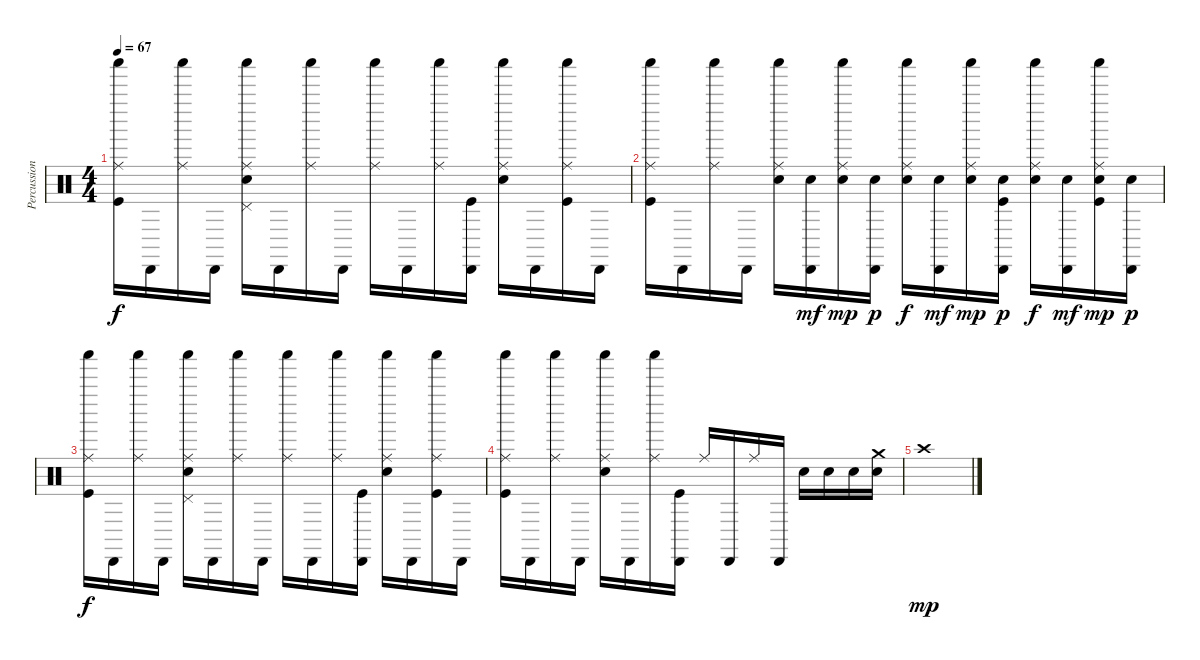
\track ("Percussions" "Percussion") {instrument percussion}
\staff {score}
\articulation defaults
\ts (4 4)
\tempo 67
\clef neutral
\ks c
("Shaker (hit)" "Ride (middle)" "Kick (hit)").16{dy f} "Cabasa (hit)".16 ("Shaker (hit)" "Ride (middle)").16 "Cabasa (hit)".16 ("Shaker (hit)" "Ride (middle)" "Pedal Hi-Hat (hit)" "Snare (hit) 2").16 "Cabasa (hit)".16 ("Shaker (hit)" "Ride (middle)").16 "Cabasa (hit)".16 ("Shaker (hit)" "Ride (middle)").16 "Cabasa (hit)".16 ("Shaker (hit)" "Ride (middle)").16 ("Cabasa (hit)" "Kick (hit)").16 ("Shaker (hit)" "Ride (middle)" "Snare (hit) 2").16 "Cabasa (hit)".16 ("Shaker (hit)" "Ride (middle)" "Kick (hit)").16 "Cabasa (hit)".16 |
("Shaker (hit)" "Ride (middle)" "Kick (hit)").16 "Cabasa (hit)".16 ("Shaker (hit)" "Ride (middle)").16 "Cabasa (hit)".16 ("Shaker (hit)" "Ride (middle)" "Snare (hit) 2").16 ("Cabasa (hit)" "Snare (hit) 2").16{dy mf} ("Shaker (hit)" "Ride (middle)" "Snare (hit) 2").16{dy mp} ("Cabasa (hit)" "Snare (hit) 2").16{dy p} ("Shaker (hit)" "Ride (middle)" "Snare (hit) 2").16{dy f} ("Cabasa (hit)" "Snare (hit) 2").16{dy mf} ("Shaker (hit)" "Ride (middle)" "Snare (hit) 2").16{dy mp} ("Cabasa (hit)" "Snare (hit) 2" "Kick (hit)").16{dy p} ("Shaker (hit)" "Ride (middle)" "Snare (hit) 2").16{dy f} ("Cabasa (hit)" "Snare (hit) 2").16{dy mf} ("Shaker (hit)" "Ride (middle)" "Snare (hit) 2" "Kick (hit)").16{dy mp} ("Cabasa (hit)" "Snare (hit) 2").16{dy p} |
("Shaker (hit)" "Ride (middle)" "Kick (hit)").16{dy f} "Cabasa (hit)".16 ("Shaker (hit)" "Ride (middle)").16 "Cabasa (hit)".16 ("Shaker (hit)" "Ride (middle)" "Pedal Hi-Hat (hit)" "Snare (hit) 2").16 "Cabasa (hit)".16 ("Shaker (hit)" "Ride (middle)").16 "Cabasa (hit)".16 ("Shaker (hit)" "Ride (middle)").16 "Cabasa (hit)".16 ("Shaker (hit)" "Ride (middle)").16 ("Cabasa (hit)" "Kick (hit)").16 ("Shaker (hit)" "Ride (middle)" "Snare (hit) 2").16 "Cabasa (hit)".16 ("Shaker (hit)" "Ride (middle)" "Kick (hit)").16 "Cabasa (hit)".16 |
\section ("" "")
("Shaker (hit)" "Ride (middle)" "Kick (hit)").16 "Cabasa (hit)".16 ("Shaker (hit)" "Ride (middle)").16 "Cabasa (hit)".16 ("Shaker (hit)" "Ride (middle)" "Snare (hit) 2").16 "Cabasa (hit)".16 ("Shaker (hit)" "Ride (middle)").16 ("Cabasa (hit)" "Kick (hit)").16 "Ride (middle)".16 "Cabasa (hit)".16 "Ride (middle)".16 "Cabasa (hit)".16 "Snare (hit) 2".16 "Snare (hit) 2".16 "Electric Snare (hit)".16 ("Crash medium (hit)" "Electric Snare (hit)").16 |
"Crash high (hit)".1{dy mp}
